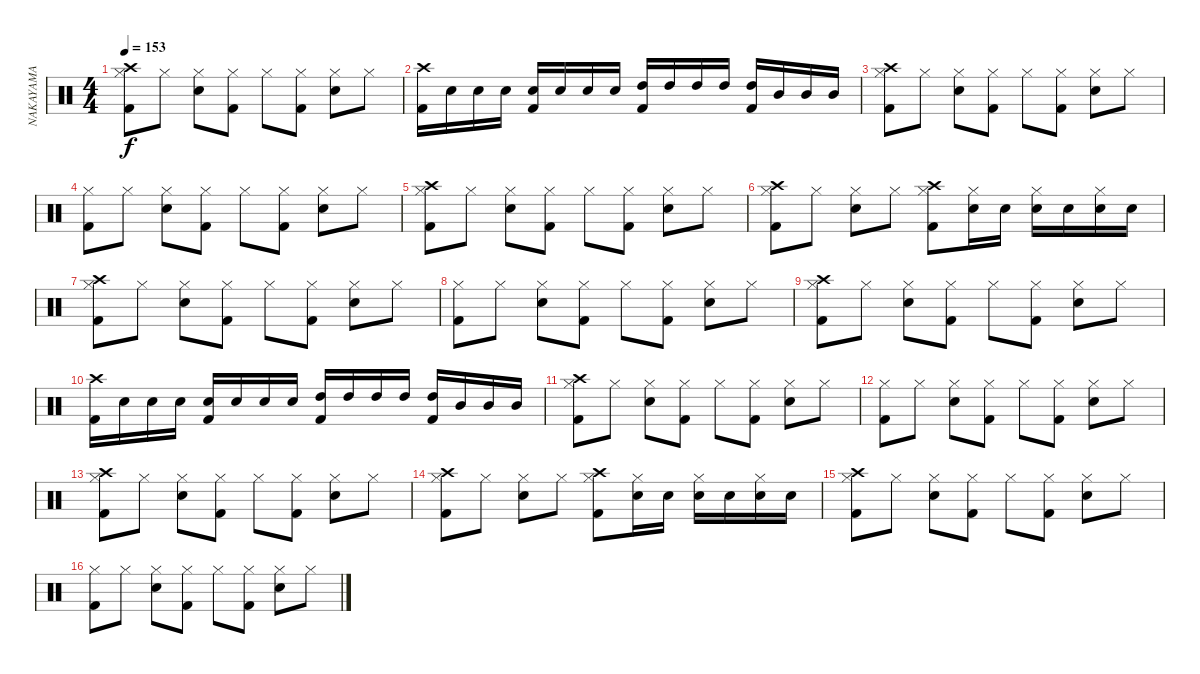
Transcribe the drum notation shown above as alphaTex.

\track ("NAKAYAMA" "NAKAYAMA") {instrument percussion}
\staff {score}
\articulation defaults
\ts (4 4)
\tempo 153
\clef neutral
\ks c
("Crash high (hit)" "Hi-Hat (closed)" "Kick (hit) 2").8{dy f} "Hi-Hat (closed)".8 ("Hi-Hat (closed)" "Snare (hit) 2").8 ("Hi-Hat (closed)" "Kick (hit) 2").8 "Hi-Hat (closed)".8 ("Hi-Hat (closed)" "Kick (hit) 2").8 ("Hi-Hat (closed)" "Snare (hit) 2").8 "Hi-Hat (closed)".8 |
("Crash high (hit)" "Kick (hit) 2").16 "Snare (hit) 2".16 "Snare (hit) 2".16 "Snare (hit) 2".16 ("Snare (hit) 2" "Kick (hit) 2").16 "Snare (hit) 2".16 "Snare (hit) 2".16 "Snare (hit) 2".16 ("High Tom (hit)" "Kick (hit) 2").16 "High Tom (hit)".16 "High Tom (hit)".16 "High Tom (hit)".16 ("High Tom (hit)" "Kick (hit) 2").16 "Mid Tom (hit)".16 "Mid Tom (hit)".16 "Mid Tom (hit)".16 |
("Crash high (hit)" "Hi-Hat (closed)" "Kick (hit) 2").8 "Hi-Hat (closed)".8 ("Hi-Hat (closed)" "Snare (hit) 2").8 ("Hi-Hat (closed)" "Kick (hit) 2").8 "Hi-Hat (closed)".8 ("Hi-Hat (closed)" "Kick (hit) 2").8 ("Hi-Hat (closed)" "Snare (hit) 2").8 "Hi-Hat (closed)".8 |
("Hi-Hat (closed)" "Kick (hit) 2").8 "Hi-Hat (closed)".8 ("Hi-Hat (closed)" "Snare (hit) 2").8 ("Hi-Hat (closed)" "Kick (hit) 2").8 "Hi-Hat (closed)".8 ("Hi-Hat (closed)" "Kick (hit) 2").8 ("Hi-Hat (closed)" "Snare (hit) 2").8 "Hi-Hat (closed)".8 |
("Crash high (hit)" "Hi-Hat (closed)" "Kick (hit) 2").8 "Hi-Hat (closed)".8 ("Hi-Hat (closed)" "Snare (hit) 2").8 ("Hi-Hat (closed)" "Kick (hit) 2").8 "Hi-Hat (closed)".8 ("Hi-Hat (closed)" "Kick (hit) 2").8 ("Hi-Hat (closed)" "Snare (hit) 2").8 "Hi-Hat (closed)".8 |
("Crash high (hit)" "Hi-Hat (closed)" "Kick (hit) 2").8 "Hi-Hat (closed)".8 ("Hi-Hat (closed)" "Snare (hit) 2").8 "Hi-Hat (closed)".8 ("Crash high (hit)" "Hi-Hat (closed)" "Kick (hit) 2").8 ("Hi-Hat (closed)" "Snare (hit) 2").16 "Snare (hit) 2".16 ("Hi-Hat (closed)" "Snare (hit) 2").16 "Snare (hit) 2".16 ("Hi-Hat (closed)" "Snare (hit) 2").16 "Snare (hit) 2".16 |
("Crash high (hit)" "Hi-Hat (closed)" "Kick (hit) 2").8 "Hi-Hat (closed)".8 ("Hi-Hat (closed)" "Snare (hit) 2").8 ("Hi-Hat (closed)" "Kick (hit) 2").8 "Hi-Hat (closed)".8 ("Hi-Hat (closed)" "Kick (hit) 2").8 ("Hi-Hat (closed)" "Snare (hit) 2").8 "Hi-Hat (closed)".8 |
("Hi-Hat (closed)" "Kick (hit) 2").8 "Hi-Hat (closed)".8 ("Hi-Hat (closed)" "Snare (hit) 2").8 ("Hi-Hat (closed)" "Kick (hit) 2").8 "Hi-Hat (closed)".8 ("Hi-Hat (closed)" "Kick (hit) 2").8 ("Hi-Hat (closed)" "Snare (hit) 2").8 "Hi-Hat (closed)".8 |
("Crash high (hit)" "Hi-Hat (closed)" "Kick (hit) 2").8 "Hi-Hat (closed)".8 ("Hi-Hat (closed)" "Snare (hit) 2").8 ("Hi-Hat (closed)" "Kick (hit) 2").8 "Hi-Hat (closed)".8 ("Hi-Hat (closed)" "Kick (hit) 2").8 ("Hi-Hat (closed)" "Snare (hit) 2").8 "Hi-Hat (closed)".8 |
("Crash high (hit)" "Kick (hit) 2").16 "Snare (hit) 2".16 "Snare (hit) 2".16 "Snare (hit) 2".16 ("Snare (hit) 2" "Kick (hit) 2").16 "Snare (hit) 2".16 "Snare (hit) 2".16 "Snare (hit) 2".16 ("High Tom (hit)" "Kick (hit) 2").16 "High Tom (hit)".16 "High Tom (hit)".16 "High Tom (hit)".16 ("High Tom (hit)" "Kick (hit) 2").16 "Mid Tom (hit)".16 "Mid Tom (hit)".16 "Mid Tom (hit)".16 |
("Crash high (hit)" "Hi-Hat (closed)" "Kick (hit) 2").8 "Hi-Hat (closed)".8 ("Hi-Hat (closed)" "Snare (hit) 2").8 ("Hi-Hat (closed)" "Kick (hit) 2").8 "Hi-Hat (closed)".8 ("Hi-Hat (closed)" "Kick (hit) 2").8 ("Hi-Hat (closed)" "Snare (hit) 2").8 "Hi-Hat (closed)".8 |
("Hi-Hat (closed)" "Kick (hit) 2").8 "Hi-Hat (closed)".8 ("Hi-Hat (closed)" "Snare (hit) 2").8 ("Hi-Hat (closed)" "Kick (hit) 2").8 "Hi-Hat (closed)".8 ("Hi-Hat (closed)" "Kick (hit) 2").8 ("Hi-Hat (closed)" "Snare (hit) 2").8 "Hi-Hat (closed)".8 |
("Crash high (hit)" "Hi-Hat (closed)" "Kick (hit) 2").8 "Hi-Hat (closed)".8 ("Hi-Hat (closed)" "Snare (hit) 2").8 ("Hi-Hat (closed)" "Kick (hit) 2").8 "Hi-Hat (closed)".8 ("Hi-Hat (closed)" "Kick (hit) 2").8 ("Hi-Hat (closed)" "Snare (hit) 2").8 "Hi-Hat (closed)".8 |
("Crash high (hit)" "Hi-Hat (closed)" "Kick (hit) 2").8 "Hi-Hat (closed)".8 ("Hi-Hat (closed)" "Snare (hit) 2").8 "Hi-Hat (closed)".8 ("Crash high (hit)" "Hi-Hat (closed)" "Kick (hit) 2").8 ("Hi-Hat (closed)" "Snare (hit) 2").16 "Snare (hit) 2".16 ("Hi-Hat (closed)" "Snare (hit) 2").16 "Snare (hit) 2".16 ("Hi-Hat (closed)" "Snare (hit) 2").16 "Snare (hit) 2".16 |
("Crash high (hit)" "Hi-Hat (closed)" "Kick (hit) 2").8 "Hi-Hat (closed)".8 ("Hi-Hat (closed)" "Snare (hit) 2").8 ("Hi-Hat (closed)" "Kick (hit) 2").8 "Hi-Hat (closed)".8 ("Hi-Hat (closed)" "Kick (hit) 2").8 ("Hi-Hat (closed)" "Snare (hit) 2").8 "Hi-Hat (closed)".8 |
("Hi-Hat (closed)" "Kick (hit) 2").8 "Hi-Hat (closed)".8 ("Hi-Hat (closed)" "Snare (hit) 2").8 ("Hi-Hat (closed)" "Kick (hit) 2").8 "Hi-Hat (closed)".8 ("Hi-Hat (closed)" "Kick (hit) 2").8 ("Hi-Hat (closed)" "Snare (hit) 2").8 "Hi-Hat (closed)".8
